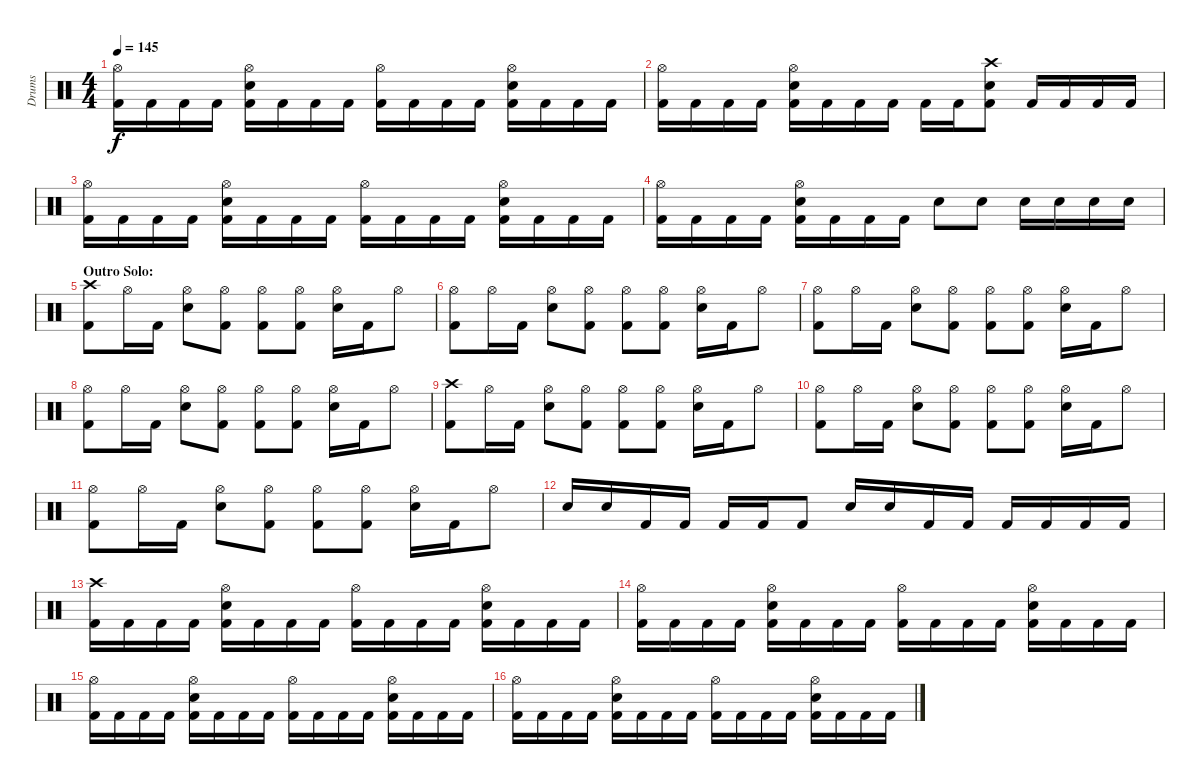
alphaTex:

\track ("Drums" "Drums") {instrument percussion}
\staff {score}
\articulation defaults
\ts (4 4)
\tempo 145
\clef neutral
\ks c
("Hi-Hat (open)" "Kick (hit) 2").16{dy f} "Kick (hit) 2".16 "Kick (hit) 2".16 "Kick (hit) 2".16 ("Hi-Hat (open)" "Snare (hit) 2" "Kick (hit) 2").16 "Kick (hit) 2".16 "Kick (hit) 2".16 "Kick (hit) 2".16 ("Hi-Hat (open)" "Kick (hit) 2").16 "Kick (hit) 2".16 "Kick (hit) 2".16 "Kick (hit) 2".16 ("Hi-Hat (open)" "Snare (hit) 2" "Kick (hit) 2").16 "Kick (hit) 2".16 "Kick (hit) 2".16 "Kick (hit) 2".16 |
("Hi-Hat (open)" "Kick (hit) 2").16 "Kick (hit) 2".16 "Kick (hit) 2".16 "Kick (hit) 2".16 ("Hi-Hat (open)" "Snare (hit) 2" "Kick (hit) 2").16 "Kick (hit) 2".16 "Kick (hit) 2".16 "Kick (hit) 2".16 "Kick (hit) 2".16 "Kick (hit) 2".16 ("Crash high (hit)" "Snare (hit) 2" "Kick (hit) 2").8 "Kick (hit) 2".16 "Kick (hit) 2".16 "Kick (hit) 2".16 "Kick (hit) 2".16 |
("Hi-Hat (open)" "Kick (hit) 2").16 "Kick (hit) 2".16 "Kick (hit) 2".16 "Kick (hit) 2".16 ("Hi-Hat (open)" "Snare (hit) 2" "Kick (hit) 2").16 "Kick (hit) 2".16 "Kick (hit) 2".16 "Kick (hit) 2".16 ("Hi-Hat (open)" "Kick (hit) 2").16 "Kick (hit) 2".16 "Kick (hit) 2".16 "Kick (hit) 2".16 ("Hi-Hat (open)" "Snare (hit) 2" "Kick (hit) 2").16 "Kick (hit) 2".16 "Kick (hit) 2".16 "Kick (hit) 2".16 |
("Hi-Hat (open)" "Kick (hit) 2").16 "Kick (hit) 2".16 "Kick (hit) 2".16 "Kick (hit) 2".16 ("Hi-Hat (open)" "Snare (hit) 2" "Kick (hit) 2").16 "Kick (hit) 2".16 "Kick (hit) 2".16 "Kick (hit) 2".16 "Snare (hit) 2".8 "Snare (hit) 2".8 "Snare (hit) 2".16 "Snare (hit) 2".16 "Snare (hit) 2".16 "Snare (hit) 2".16 |
\section ("" "Outro Solo:")
("Crash high (hit)" "Kick (hit) 2").8 "Hi-Hat (open)".16 "Kick (hit) 2".16 ("Hi-Hat (open)" "Snare (hit) 2").8 ("Hi-Hat (open)" "Kick (hit) 2").8 ("Hi-Hat (open)" "Kick (hit) 2").8 ("Hi-Hat (open)" "Kick (hit) 2").8 ("Hi-Hat (open)" "Snare (hit) 2").16 "Kick (hit) 2".16 "Hi-Hat (open)".8 |
("Hi-Hat (open)" "Kick (hit) 2").8 "Hi-Hat (open)".16 "Kick (hit) 2".16 ("Hi-Hat (open)" "Snare (hit) 2").8 ("Hi-Hat (open)" "Kick (hit) 2").8 ("Hi-Hat (open)" "Kick (hit) 2").8 ("Hi-Hat (open)" "Kick (hit) 2").8 ("Hi-Hat (open)" "Snare (hit) 2").16 "Kick (hit) 2".16 "Hi-Hat (open)".8 |
("Hi-Hat (open)" "Kick (hit) 2").8 "Hi-Hat (open)".16 "Kick (hit) 2".16 ("Hi-Hat (open)" "Snare (hit) 2").8 ("Hi-Hat (open)" "Kick (hit) 2").8 ("Hi-Hat (open)" "Kick (hit) 2").8 ("Hi-Hat (open)" "Kick (hit) 2").8 ("Hi-Hat (open)" "Snare (hit) 2").16 "Kick (hit) 2".16 "Hi-Hat (open)".8 |
("Hi-Hat (open)" "Kick (hit) 2").8 "Hi-Hat (open)".16 "Kick (hit) 2".16 ("Hi-Hat (open)" "Snare (hit) 2").8 ("Hi-Hat (open)" "Kick (hit) 2").8 ("Hi-Hat (open)" "Kick (hit) 2").8 ("Hi-Hat (open)" "Kick (hit) 2").8 ("Hi-Hat (open)" "Snare (hit) 2").16 "Kick (hit) 2".16 "Hi-Hat (open)".8 |
("Crash high (hit)" "Kick (hit) 2").8 "Hi-Hat (open)".16 "Kick (hit) 2".16 ("Hi-Hat (open)" "Snare (hit) 2").8 ("Hi-Hat (open)" "Kick (hit) 2").8 ("Hi-Hat (open)" "Kick (hit) 2").8 ("Hi-Hat (open)" "Kick (hit) 2").8 ("Hi-Hat (open)" "Snare (hit) 2").16 "Kick (hit) 2".16 "Hi-Hat (open)".8 |
("Hi-Hat (open)" "Kick (hit) 2").8 "Hi-Hat (open)".16 "Kick (hit) 2".16 ("Hi-Hat (open)" "Snare (hit) 2").8 ("Hi-Hat (open)" "Kick (hit) 2").8 ("Hi-Hat (open)" "Kick (hit) 2").8 ("Hi-Hat (open)" "Kick (hit) 2").8 ("Hi-Hat (open)" "Snare (hit) 2").16 "Kick (hit) 2".16 "Hi-Hat (open)".8 |
("Hi-Hat (open)" "Kick (hit) 2").8 "Hi-Hat (open)".16 "Kick (hit) 2".16 ("Hi-Hat (open)" "Snare (hit) 2").8 ("Hi-Hat (open)" "Kick (hit) 2").8 ("Hi-Hat (open)" "Kick (hit) 2").8 ("Hi-Hat (open)" "Kick (hit) 2").8 ("Hi-Hat (open)" "Snare (hit) 2").16 "Kick (hit) 2".16 "Hi-Hat (open)".8 |
"Snare (hit) 2".16 "Snare (hit) 2".16 "Kick (hit) 2".16 "Kick (hit) 2".16 "Kick (hit) 2".16 "Kick (hit) 2".16 "Kick (hit) 2".8 "Snare (hit) 2".16 "Snare (hit) 2".16 "Kick (hit) 2".16 "Kick (hit) 2".16 "Kick (hit) 2".16 "Kick (hit) 2".16 "Kick (hit) 2".16 "Kick (hit) 2".16 |
("Crash high (hit)" "Kick (hit) 2").16 "Kick (hit) 2".16 "Kick (hit) 2".16 "Kick (hit) 2".16 ("Hi-Hat (open)" "Snare (hit) 2" "Kick (hit) 2").16 "Kick (hit) 2".16 "Kick (hit) 2".16 "Kick (hit) 2".16 ("Hi-Hat (open)" "Kick (hit) 2").16 "Kick (hit) 2".16 "Kick (hit) 2".16 "Kick (hit) 2".16 ("Hi-Hat (open)" "Snare (hit) 2" "Kick (hit) 2").16 "Kick (hit) 2".16 "Kick (hit) 2".16 "Kick (hit) 2".16 |
("Hi-Hat (open)" "Kick (hit) 2").16 "Kick (hit) 2".16 "Kick (hit) 2".16 "Kick (hit) 2".16 ("Hi-Hat (open)" "Snare (hit) 2" "Kick (hit) 2").16 "Kick (hit) 2".16 "Kick (hit) 2".16 "Kick (hit) 2".16 ("Hi-Hat (open)" "Kick (hit) 2").16 "Kick (hit) 2".16 "Kick (hit) 2".16 "Kick (hit) 2".16 ("Hi-Hat (open)" "Snare (hit) 2" "Kick (hit) 2").16 "Kick (hit) 2".16 "Kick (hit) 2".16 "Kick (hit) 2".16 |
("Hi-Hat (open)" "Kick (hit) 2").16 "Kick (hit) 2".16 "Kick (hit) 2".16 "Kick (hit) 2".16 ("Hi-Hat (open)" "Snare (hit) 2" "Kick (hit) 2").16 "Kick (hit) 2".16 "Kick (hit) 2".16 "Kick (hit) 2".16 ("Hi-Hat (open)" "Kick (hit) 2").16 "Kick (hit) 2".16 "Kick (hit) 2".16 "Kick (hit) 2".16 ("Hi-Hat (open)" "Snare (hit) 2" "Kick (hit) 2").16 "Kick (hit) 2".16 "Kick (hit) 2".16 "Kick (hit) 2".16 |
("Hi-Hat (open)" "Kick (hit) 2").16 "Kick (hit) 2".16 "Kick (hit) 2".16 "Kick (hit) 2".16 ("Hi-Hat (open)" "Snare (hit) 2" "Kick (hit) 2").16 "Kick (hit) 2".16 "Kick (hit) 2".16 "Kick (hit) 2".16 ("Hi-Hat (open)" "Kick (hit) 2").16 "Kick (hit) 2".16 "Kick (hit) 2".16 "Kick (hit) 2".16 ("Hi-Hat (open)" "Snare (hit) 2" "Kick (hit) 2").16 "Kick (hit) 2".16 "Kick (hit) 2".16 "Kick (hit) 2".16
